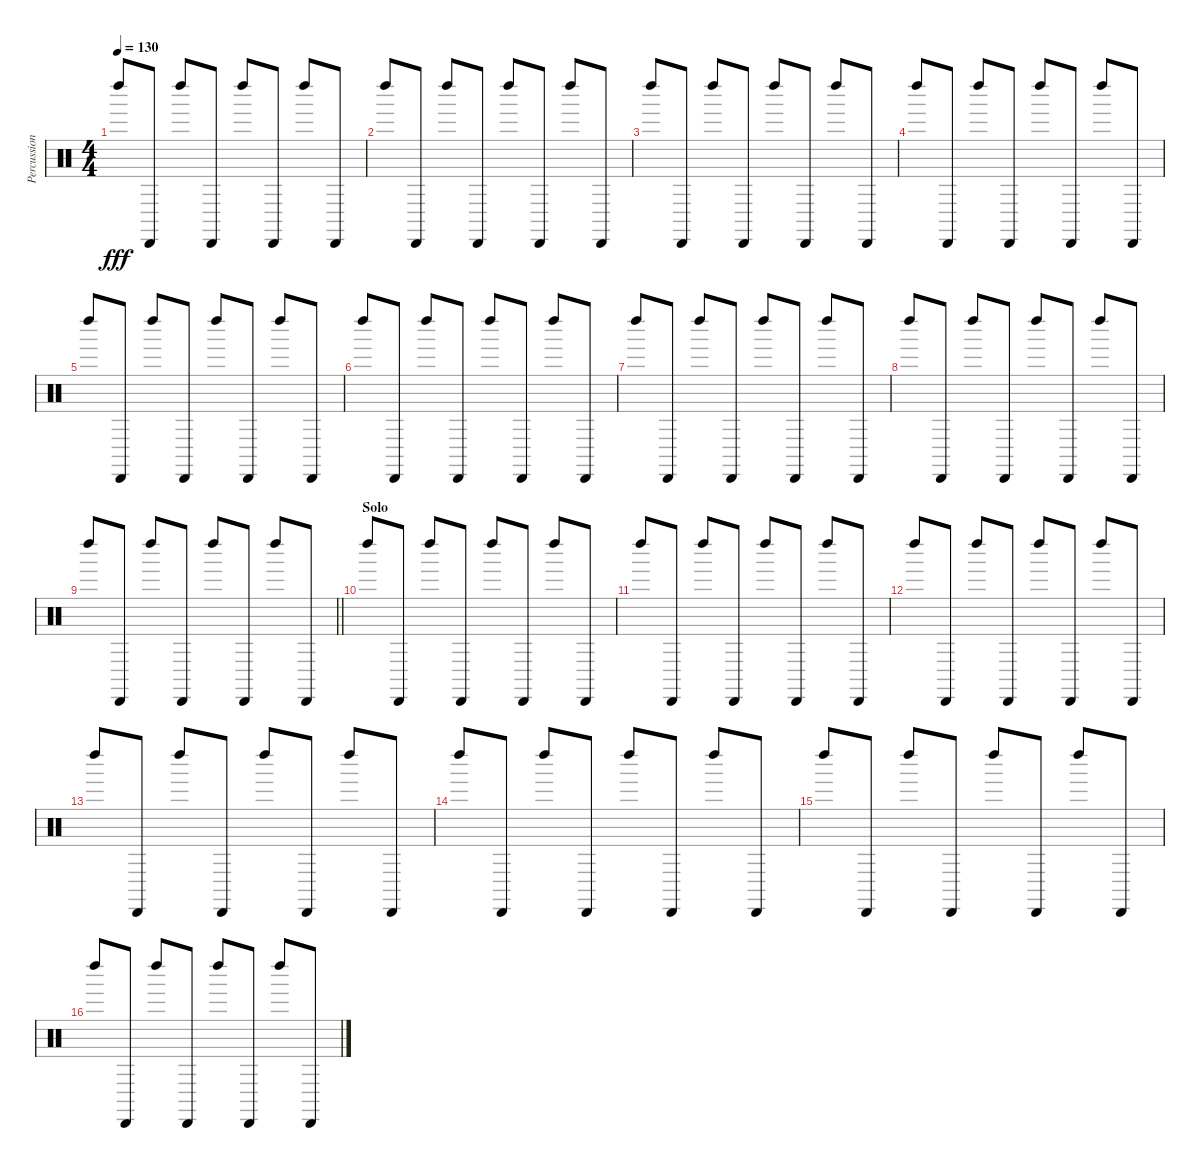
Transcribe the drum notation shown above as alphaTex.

\track ("Percussions" "Percussion") {instrument percussion}
\staff {score}
\articulation defaults
\ts (4 4)
\tempo 130
\clef neutral
\ks c "Left Maraca (hit)".8{dy fff} "Cabasa (hit)".8 "Left Maraca (hit)".8 "Cabasa (hit)".8 "Left Maraca (hit)".8 "Cabasa (hit)".8 "Left Maraca (hit)".8 "Cabasa (hit)".8
|
"Left Maraca (hit)".8 "Cabasa (hit)".8 "Left Maraca (hit)".8 "Cabasa (hit)".8 "Left Maraca (hit)".8 "Cabasa (hit)".8 "Left Maraca (hit)".8 "Cabasa (hit)".8 |
"Left Maraca (hit)".8 "Cabasa (hit)".8 "Left Maraca (hit)".8 "Cabasa (hit)".8 "Left Maraca (hit)".8 "Cabasa (hit)".8 "Left Maraca (hit)".8 "Cabasa (hit)".8 |
"Left Maraca (hit)".8 "Cabasa (hit)".8 "Left Maraca (hit)".8 "Cabasa (hit)".8 "Left Maraca (hit)".8 "Cabasa (hit)".8 "Left Maraca (hit)".8 "Cabasa (hit)".8 |
"Left Maraca (hit)".8 "Cabasa (hit)".8 "Left Maraca (hit)".8 "Cabasa (hit)".8 "Left Maraca (hit)".8 "Cabasa (hit)".8 "Left Maraca (hit)".8 "Cabasa (hit)".8 |
"Left Maraca (hit)".8 "Cabasa (hit)".8 "Left Maraca (hit)".8 "Cabasa (hit)".8 "Left Maraca (hit)".8 "Cabasa (hit)".8 "Left Maraca (hit)".8 "Cabasa (hit)".8 |
"Left Maraca (hit)".8 "Cabasa (hit)".8 "Left Maraca (hit)".8 "Cabasa (hit)".8 "Left Maraca (hit)".8 "Cabasa (hit)".8 "Left Maraca (hit)".8 "Cabasa (hit)".8 |
"Left Maraca (hit)".8 "Cabasa (hit)".8 "Left Maraca (hit)".8 "Cabasa (hit)".8 "Left Maraca (hit)".8 "Cabasa (hit)".8 "Left Maraca (hit)".8 "Cabasa (hit)".8 |
\barLineRight lightlight "Left Maraca (hit)".8 "Cabasa (hit)".8 "Left Maraca (hit)".8 "Cabasa (hit)".8 "Left Maraca (hit)".8 "Cabasa (hit)".8 "Left Maraca (hit)".8 "Cabasa (hit)".8
|
\section ("" "Solo")
"Left Maraca (hit)".8 "Cabasa (hit)".8 "Left Maraca (hit)".8 "Cabasa (hit)".8 "Left Maraca (hit)".8 "Cabasa (hit)".8 "Left Maraca (hit)".8 "Cabasa (hit)".8 |
"Left Maraca (hit)".8 "Cabasa (hit)".8 "Left Maraca (hit)".8 "Cabasa (hit)".8 "Left Maraca (hit)".8 "Cabasa (hit)".8 "Left Maraca (hit)".8 "Cabasa (hit)".8 |
"Left Maraca (hit)".8 "Cabasa (hit)".8 "Left Maraca (hit)".8 "Cabasa (hit)".8 "Left Maraca (hit)".8 "Cabasa (hit)".8 "Left Maraca (hit)".8 "Cabasa (hit)".8 |
"Left Maraca (hit)".8 "Cabasa (hit)".8 "Left Maraca (hit)".8 "Cabasa (hit)".8 "Left Maraca (hit)".8 "Cabasa (hit)".8 "Left Maraca (hit)".8 "Cabasa (hit)".8 |
"Left Maraca (hit)".8 "Cabasa (hit)".8 "Left Maraca (hit)".8 "Cabasa (hit)".8 "Left Maraca (hit)".8 "Cabasa (hit)".8 "Left Maraca (hit)".8 "Cabasa (hit)".8 |
"Left Maraca (hit)".8 "Cabasa (hit)".8 "Left Maraca (hit)".8 "Cabasa (hit)".8 "Left Maraca (hit)".8 "Cabasa (hit)".8 "Left Maraca (hit)".8 "Cabasa (hit)".8 |
"Left Maraca (hit)".8 "Cabasa (hit)".8 "Left Maraca (hit)".8 "Cabasa (hit)".8 "Left Maraca (hit)".8 "Cabasa (hit)".8 "Left Maraca (hit)".8 "Cabasa (hit)".8
